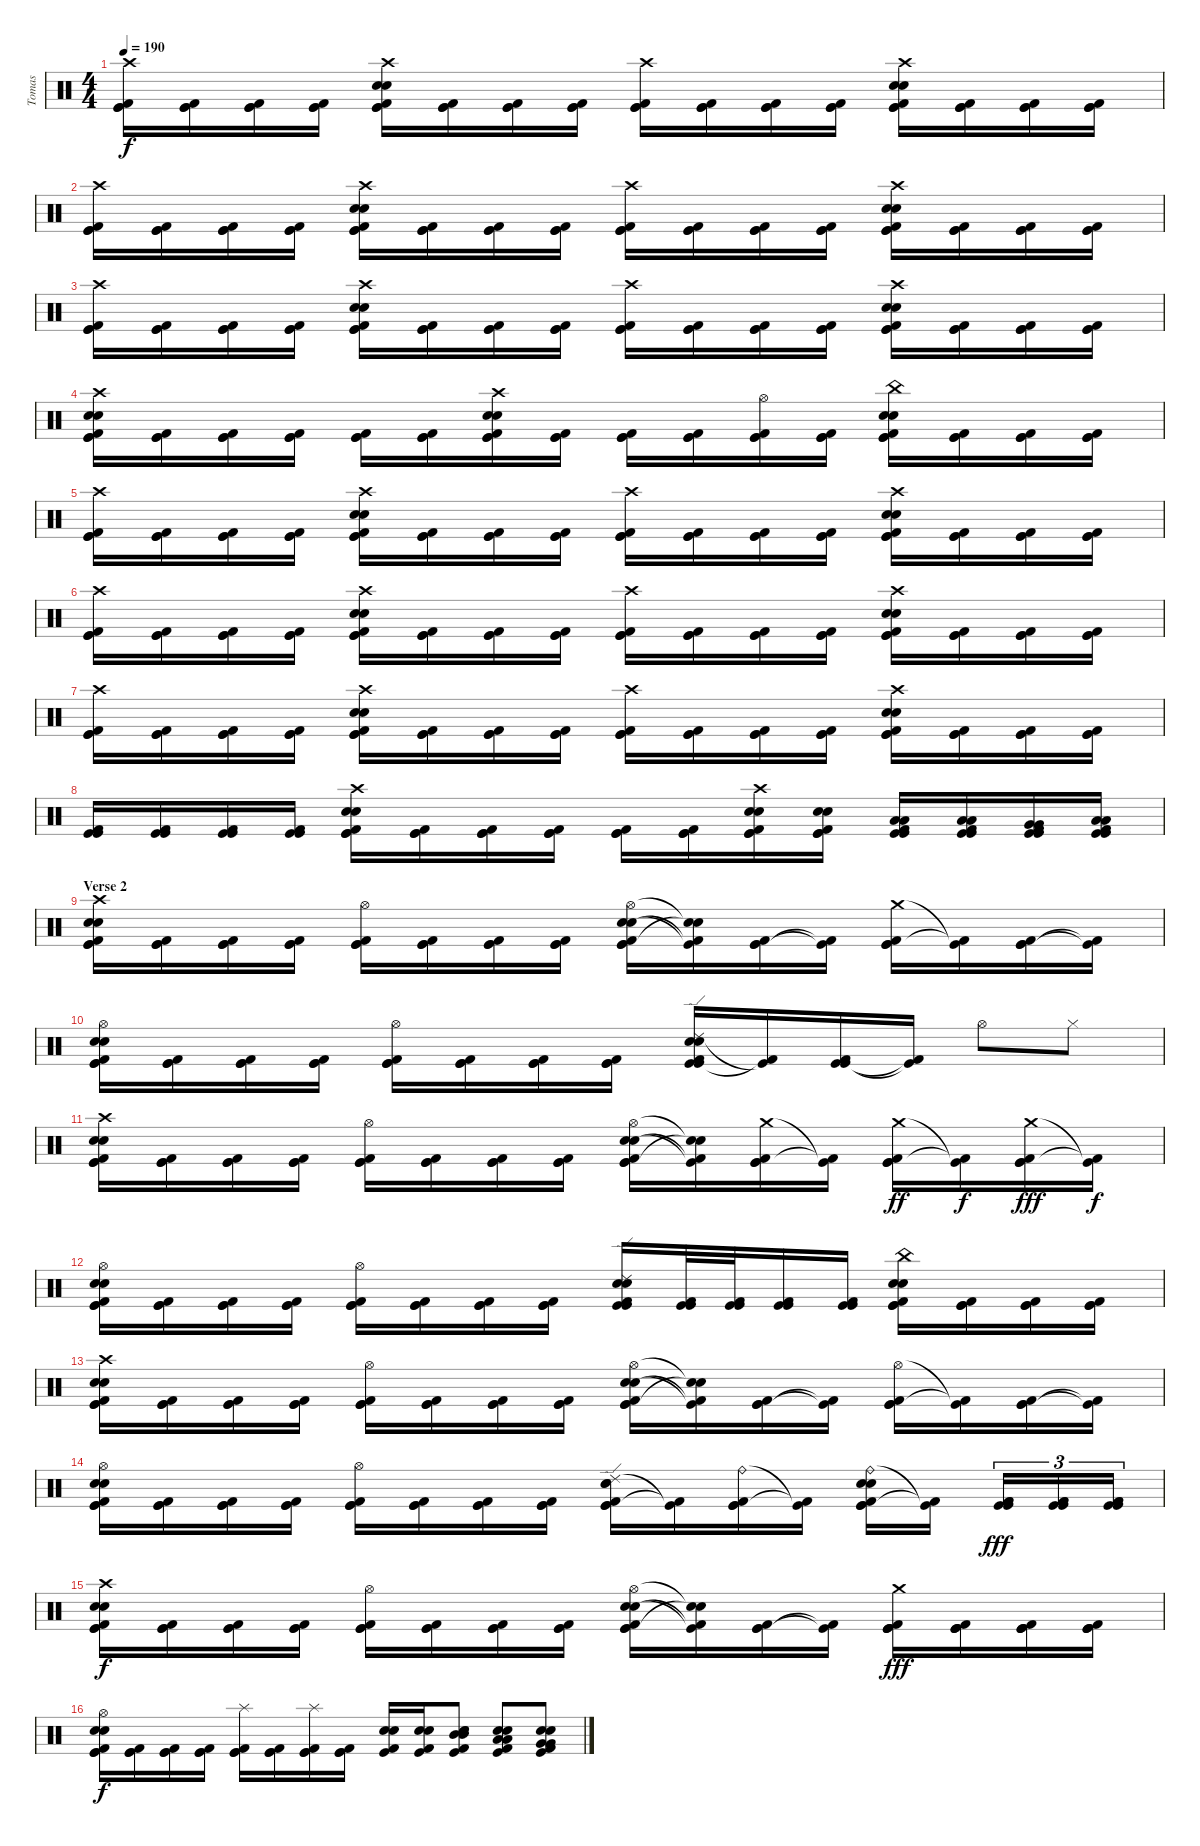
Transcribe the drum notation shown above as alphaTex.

\track ("Tomas" "Tomas") {instrument percussion}
\staff {score}
\articulation defaults
\ts (4 4)
\tempo 190
\clef neutral
\ks c
("Crash high (hit)" "Kick (hit)" "Kick (hit)" "Kick (hit) 2").16{dy f} ("Kick (hit)" "Kick (hit)" "Kick (hit) 2").16 ("Kick (hit)" "Kick (hit)" "Kick (hit) 2").16 ("Kick (hit)" "Kick (hit)" "Kick (hit) 2").16 ("Crash high (hit)" "Kick (hit)" "Electric Snare (hit)" "Electric Snare (hit)" "Kick (hit)" "Kick (hit) 2").16 ("Kick (hit)" "Kick (hit)" "Kick (hit) 2").16 ("Kick (hit)" "Kick (hit)" "Kick (hit) 2").16 ("Kick (hit)" "Kick (hit)" "Kick (hit) 2").16 ("Crash high (hit)" "Kick (hit)" "Kick (hit)" "Kick (hit) 2").16 ("Kick (hit)" "Kick (hit)" "Kick (hit) 2").16 ("Kick (hit)" "Kick (hit)" "Kick (hit) 2").16 ("Kick (hit)" "Kick (hit)" "Kick (hit) 2").16 ("Crash high (hit)" "Kick (hit)" "Electric Snare (hit)" "Electric Snare (hit)" "Kick (hit)" "Kick (hit) 2").16 ("Kick (hit)" "Kick (hit)" "Kick (hit) 2").16 ("Kick (hit)" "Kick (hit)" "Kick (hit) 2").16 ("Kick (hit)" "Kick (hit)" "Kick (hit) 2").16 |
("Crash high (hit)" "Kick (hit)" "Kick (hit)" "Kick (hit) 2").16 ("Kick (hit)" "Kick (hit)" "Kick (hit) 2").16 ("Kick (hit)" "Kick (hit)" "Kick (hit) 2").16 ("Kick (hit)" "Kick (hit)" "Kick (hit) 2").16 ("Crash high (hit)" "Kick (hit)" "Electric Snare (hit)" "Electric Snare (hit)" "Kick (hit)" "Kick (hit) 2").16 ("Kick (hit)" "Kick (hit)" "Kick (hit) 2").16 ("Kick (hit)" "Kick (hit)" "Kick (hit) 2").16 ("Kick (hit)" "Kick (hit)" "Kick (hit) 2").16 ("Crash high (hit)" "Kick (hit)" "Kick (hit)" "Kick (hit) 2").16 ("Kick (hit)" "Kick (hit)" "Kick (hit) 2").16 ("Kick (hit)" "Kick (hit)" "Kick (hit) 2").16 ("Kick (hit)" "Kick (hit)" "Kick (hit) 2").16 ("Crash high (hit)" "Kick (hit)" "Electric Snare (hit)" "Electric Snare (hit)" "Kick (hit)" "Kick (hit) 2").16 ("Kick (hit)" "Kick (hit)" "Kick (hit) 2").16 ("Kick (hit)" "Kick (hit)" "Kick (hit) 2").16 ("Kick (hit)" "Kick (hit)" "Kick (hit) 2").16 |
("Crash high (hit)" "Kick (hit)" "Kick (hit)" "Kick (hit) 2").16 ("Kick (hit)" "Kick (hit)" "Kick (hit) 2").16 ("Kick (hit)" "Kick (hit)" "Kick (hit) 2").16 ("Kick (hit)" "Kick (hit)" "Kick (hit) 2").16 ("Crash high (hit)" "Kick (hit)" "Electric Snare (hit)" "Electric Snare (hit)" "Kick (hit)" "Kick (hit) 2").16 ("Kick (hit)" "Kick (hit)" "Kick (hit) 2").16 ("Kick (hit)" "Kick (hit)" "Kick (hit) 2").16 ("Kick (hit)" "Kick (hit)" "Kick (hit) 2").16 ("Crash high (hit)" "Kick (hit)" "Kick (hit)" "Kick (hit) 2").16 ("Kick (hit)" "Kick (hit)" "Kick (hit) 2").16 ("Kick (hit)" "Kick (hit)" "Kick (hit) 2").16 ("Kick (hit)" "Kick (hit)" "Kick (hit) 2").16 ("Crash high (hit)" "Kick (hit)" "Electric Snare (hit)" "Electric Snare (hit)" "Kick (hit)" "Kick (hit) 2").16 ("Kick (hit)" "Kick (hit)" "Kick (hit) 2").16 ("Kick (hit)" "Kick (hit)" "Kick (hit) 2").16 ("Kick (hit)" "Kick (hit)" "Kick (hit) 2").16 |
("Crash high (hit)" "Kick (hit)" "Electric Snare (hit)" "Electric Snare (hit)" "Kick (hit)" "Kick (hit) 2").16 ("Kick (hit)" "Kick (hit)" "Kick (hit) 2").16 ("Kick (hit)" "Kick (hit)" "Kick (hit) 2").16 ("Kick (hit)" "Kick (hit)" "Kick (hit) 2").16 ("Kick (hit)" "Kick (hit)" "Kick (hit) 2").16 ("Kick (hit)" "Kick (hit)" "Kick (hit) 2").16 ("Crash high (hit)" "Kick (hit)" "Electric Snare (hit)" "Electric Snare (hit)" "Kick (hit)" "Kick (hit) 2").16 ("Kick (hit)" "Kick (hit)" "Kick (hit) 2").16 ("Kick (hit)" "Kick (hit)" "Kick (hit) 2").16 ("Kick (hit)" "Kick (hit)" "Kick (hit) 2").16 ("Hi-Hat (open)" "Kick (hit)" "Kick (hit)" "Kick (hit) 2").16 ("Kick (hit)" "Kick (hit)" "Kick (hit) 2").16 ("China (hit)" "Kick (hit)" "Electric Snare (hit)" "Electric Snare (hit)" "Kick (hit)" "Kick (hit) 2").16 ("Kick (hit)" "Kick (hit)" "Kick (hit) 2").16 ("Kick (hit)" "Kick (hit)" "Kick (hit) 2").16 ("Kick (hit)" "Kick (hit)" "Kick (hit) 2").16 |
("Crash high (hit)" "Kick (hit)" "Kick (hit)" "Kick (hit) 2").16 ("Kick (hit)" "Kick (hit)" "Kick (hit) 2").16 ("Kick (hit)" "Kick (hit)" "Kick (hit) 2").16 ("Kick (hit)" "Kick (hit)" "Kick (hit) 2").16 ("Crash high (hit)" "Kick (hit)" "Electric Snare (hit)" "Electric Snare (hit)" "Kick (hit)" "Kick (hit) 2").16 ("Kick (hit)" "Kick (hit)" "Kick (hit) 2").16 ("Kick (hit)" "Kick (hit)" "Kick (hit) 2").16 ("Kick (hit)" "Kick (hit)" "Kick (hit) 2").16 ("Crash high (hit)" "Kick (hit)" "Kick (hit)" "Kick (hit) 2").16 ("Kick (hit)" "Kick (hit)" "Kick (hit) 2").16 ("Kick (hit)" "Kick (hit)" "Kick (hit) 2").16 ("Kick (hit)" "Kick (hit)" "Kick (hit) 2").16 ("Crash high (hit)" "Kick (hit)" "Electric Snare (hit)" "Electric Snare (hit)" "Kick (hit)" "Kick (hit) 2").16 ("Kick (hit)" "Kick (hit)" "Kick (hit) 2").16 ("Kick (hit)" "Kick (hit)" "Kick (hit) 2").16 ("Kick (hit)" "Kick (hit)" "Kick (hit) 2").16 |
("Crash high (hit)" "Kick (hit)" "Kick (hit)" "Kick (hit) 2").16 ("Kick (hit)" "Kick (hit)" "Kick (hit) 2").16 ("Kick (hit)" "Kick (hit)" "Kick (hit) 2").16 ("Kick (hit)" "Kick (hit)" "Kick (hit) 2").16 ("Crash high (hit)" "Kick (hit)" "Electric Snare (hit)" "Electric Snare (hit)" "Kick (hit)" "Kick (hit) 2").16 ("Kick (hit)" "Kick (hit)" "Kick (hit) 2").16 ("Kick (hit)" "Kick (hit)" "Kick (hit) 2").16 ("Kick (hit)" "Kick (hit)" "Kick (hit) 2").16 ("Crash high (hit)" "Kick (hit)" "Kick (hit)" "Kick (hit) 2").16 ("Kick (hit)" "Kick (hit)" "Kick (hit) 2").16 ("Kick (hit)" "Kick (hit)" "Kick (hit) 2").16 ("Kick (hit)" "Kick (hit)" "Kick (hit) 2").16 ("Crash high (hit)" "Kick (hit)" "Electric Snare (hit)" "Electric Snare (hit)" "Kick (hit)" "Kick (hit) 2").16 ("Kick (hit)" "Kick (hit)" "Kick (hit) 2").16 ("Kick (hit)" "Kick (hit)" "Kick (hit) 2").16 ("Kick (hit)" "Kick (hit)" "Kick (hit) 2").16 |
("Crash high (hit)" "Kick (hit)" "Kick (hit)" "Kick (hit) 2").16 ("Kick (hit)" "Kick (hit)" "Kick (hit) 2").16 ("Kick (hit)" "Kick (hit)" "Kick (hit) 2").16 ("Kick (hit)" "Kick (hit)" "Kick (hit) 2").16 ("Crash high (hit)" "Kick (hit)" "Electric Snare (hit)" "Electric Snare (hit)" "Kick (hit)" "Kick (hit) 2").16 ("Kick (hit)" "Kick (hit)" "Kick (hit) 2").16 ("Kick (hit)" "Kick (hit)" "Kick (hit) 2").16 ("Kick (hit)" "Kick (hit)" "Kick (hit) 2").16 ("Crash high (hit)" "Kick (hit)" "Kick (hit)" "Kick (hit) 2").16 ("Kick (hit)" "Kick (hit)" "Kick (hit) 2").16 ("Kick (hit)" "Kick (hit)" "Kick (hit) 2").16 ("Kick (hit)" "Kick (hit)" "Kick (hit) 2").16 ("Crash high (hit)" "Kick (hit)" "Electric Snare (hit)" "Electric Snare (hit)" "Kick (hit)" "Kick (hit) 2").16 ("Kick (hit)" "Kick (hit)" "Kick (hit) 2").16 ("Kick (hit)" "Kick (hit)" "Kick (hit) 2").16 ("Kick (hit)" "Kick (hit)" "Kick (hit) 2").16 |
("Kick (hit)" "Kick (hit)" "Kick (hit) 2").16 ("Kick (hit)" "Kick (hit)" "Kick (hit) 2").16 ("Kick (hit)" "Kick (hit)" "Kick (hit) 2").16 ("Kick (hit)" "Kick (hit)" "Kick (hit) 2").16 ("Crash high (hit)" "Kick (hit)" "Electric Snare (hit)" "Electric Snare (hit)" "Kick (hit)" "Kick (hit) 2").16 ("Kick (hit)" "Kick (hit)" "Kick (hit) 2").16 ("Kick (hit)" "Kick (hit)" "Kick (hit) 2").16 ("Kick (hit)" "Kick (hit)" "Kick (hit) 2").16 ("Kick (hit)" "Kick (hit)" "Kick (hit) 2").16 ("Kick (hit)" "Kick (hit)" "Kick (hit) 2").16 ("Crash high (hit)" "Kick (hit)" "Electric Snare (hit)" "Electric Snare (hit)" "Kick (hit)" "Kick (hit) 2").16 ("Kick (hit)" "Electric Snare (hit)" "Electric Snare (hit)" "Kick (hit)" "Kick (hit) 2").16 ("Kick (hit)" "Low Tom (hit)" "Low Tom (hit)" "Kick (hit)" "Kick (hit) 2").16 ("Kick (hit)" "Low Tom (hit)" "Low Tom (hit)" "Kick (hit)" "Kick (hit) 2").16 ("Kick (hit)" "Very Low Tom (hit)" "Very Low Tom (hit)" "Kick (hit)" "Kick (hit) 2").16 ("Kick (hit)" "Low Floor Tom (hit)" "Low Floor Tom (hit)" "Kick (hit)" "Kick (hit) 2").16 |
\section ("" "Verse 2")
("Crash high (hit)" "Kick (hit)" "Electric Snare (hit)" "Electric Snare (hit)" "Kick (hit)" "Kick (hit) 2").16 ("Kick (hit)" "Kick (hit)" "Kick (hit) 2").16 ("Kick (hit)" "Kick (hit)" "Kick (hit) 2").16 ("Kick (hit)" "Kick (hit)" "Kick (hit) 2").16 ("Hi-Hat (open)" "Kick (hit)" "Kick (hit)" "Kick (hit) 2").16 ("Kick (hit)" "Kick (hit)" "Kick (hit) 2").16 ("Kick (hit)" "Kick (hit)" "Kick (hit) 2").16 ("Kick (hit)" "Kick (hit)" "Kick (hit) 2").16 ("Hi-Hat (open)" "Kick (hit)" "Electric Snare (hit)" "Electric Snare (hit)" "Kick (hit)" "Kick (hit) 2").16 ("Snare (hit)"{t} "Snare (hit)"{t} "Kick (hit)"{t} "Kick (hit) 2"{t}).16 ("Kick (hit)" "Kick (hit)" "Kick (hit) 2").16 ("Kick (hit)"{t} "Kick (hit) 2"{t}).16 ("Crash medium (hit)" "Kick (hit)" "Kick (hit)" "Kick (hit) 2").16 ("Kick (hit)"{t} "Kick (hit) 2"{t}).16 ("Kick (hit)" "Kick (hit)" "Kick (hit) 2").16 ("Kick (hit)"{t} "Kick (hit) 2"{t}).16 |
("Hi-Hat (open)" "Kick (hit)" "Electric Snare (hit)" "Electric Snare (hit)" "Kick (hit)" "Kick (hit) 2").16 ("Kick (hit)" "Kick (hit)" "Kick (hit) 2").16 ("Kick (hit)" "Kick (hit)" "Kick (hit) 2").16 ("Kick (hit)" "Kick (hit)" "Kick (hit) 2").16 ("Hi-Hat (open)" "Kick (hit)" "Kick (hit)" "Kick (hit) 2").16 ("Kick (hit)" "Kick (hit)" "Kick (hit) 2").16 ("Kick (hit)" "Kick (hit)" "Kick (hit) 2").16 ("Kick (hit)" "Kick (hit)" "Kick (hit) 2").16 ("Ride (edge) 2" "Kick (hit)" "Electric Snare (hit)" "Electric Snare (hit)" "Kick (hit)" "Kick (hit) 2").16 ("Kick (hit)"{t} "Kick (hit) 2"{t}).16 ("Kick (hit)" "Kick (hit)" "Kick (hit) 2").16 ("Kick (hit)"{t} "Kick (hit) 2"{t}).16 "Hi-Hat (open)".8 "Hi-Hat (closed)".8 |
("Crash high (hit)" "Kick (hit)" "Electric Snare (hit)" "Electric Snare (hit)" "Kick (hit)" "Kick (hit) 2").16 ("Kick (hit)" "Kick (hit)" "Kick (hit) 2").16 ("Kick (hit)" "Kick (hit)" "Kick (hit) 2").16 ("Kick (hit)" "Kick (hit)" "Kick (hit) 2").16 ("Hi-Hat (open)" "Kick (hit)" "Kick (hit)" "Kick (hit) 2").16 ("Kick (hit)" "Kick (hit)" "Kick (hit) 2").16 ("Kick (hit)" "Kick (hit)" "Kick (hit) 2").16 ("Kick (hit)" "Kick (hit)" "Kick (hit) 2").16 ("Hi-Hat (open)" "Kick (hit)" "Electric Snare (hit)" "Electric Snare (hit)" "Kick (hit)" "Kick (hit) 2").16 ("Snare (hit)"{t} "Snare (hit)"{t} "Kick (hit)"{t} "Kick (hit) 2"{t}).16 ("Crash medium (hit)" "Kick (hit)" "Kick (hit)" "Kick (hit) 2").16 ("Kick (hit)"{t} "Kick (hit) 2"{t}).16 ("Crash medium (hit)" "Kick (hit)" "Kick (hit)" "Kick (hit) 2").16{dy ff} ("Kick (hit)"{t} "Kick (hit) 2"{t}).16{dy f} ("Crash medium (hit)" "Kick (hit)" "Kick (hit)" "Kick (hit) 2").16{dy fff} ("Kick (hit)"{t} "Kick (hit) 2"{t}).16{dy f} |
("Hi-Hat (open)" "Kick (hit)" "Electric Snare (hit)" "Electric Snare (hit)" "Kick (hit)" "Kick (hit) 2").16 ("Kick (hit)" "Kick (hit)" "Kick (hit) 2").16 ("Kick (hit)" "Kick (hit)" "Kick (hit) 2").16 ("Kick (hit)" "Kick (hit)" "Kick (hit) 2").16 ("Hi-Hat (open)" "Kick (hit)" "Kick (hit)" "Kick (hit) 2").16 ("Kick (hit)" "Kick (hit)" "Kick (hit) 2").16 ("Kick (hit)" "Kick (hit)" "Kick (hit) 2").16 ("Kick (hit)" "Kick (hit)" "Kick (hit) 2").16 ("Ride (edge) 2" "Kick (hit)" "Electric Snare (hit)" "Electric Snare (hit)" "Kick (hit)" "Kick (hit) 2").16 ("Kick (hit)" "Kick (hit)" "Kick (hit) 2").32 ("Kick (hit)" "Kick (hit)" "Kick (hit) 2").32 ("Kick (hit)" "Kick (hit)" "Kick (hit) 2").16 ("Kick (hit)" "Kick (hit)" "Kick (hit) 2").16 ("China (hit)" "Kick (hit)" "Electric Snare (hit)" "Electric Snare (hit)" "Kick (hit)" "Kick (hit) 2").16 ("Kick (hit)" "Kick (hit)" "Kick (hit) 2").16 ("Kick (hit)" "Kick (hit)" "Kick (hit) 2").16 ("Kick (hit)" "Kick (hit)" "Kick (hit) 2").16 |
("Crash high (hit)" "Kick (hit)" "Electric Snare (hit)" "Electric Snare (hit)" "Kick (hit)" "Kick (hit) 2").16 ("Kick (hit)" "Kick (hit)" "Kick (hit) 2").16 ("Kick (hit)" "Kick (hit)" "Kick (hit) 2").16 ("Kick (hit)" "Kick (hit)" "Kick (hit) 2").16 ("Hi-Hat (open)" "Kick (hit)" "Kick (hit)" "Kick (hit) 2").16 ("Kick (hit)" "Kick (hit)" "Kick (hit) 2").16 ("Kick (hit)" "Kick (hit)" "Kick (hit) 2").16 ("Kick (hit)" "Kick (hit)" "Kick (hit) 2").16 ("Hi-Hat (open)" "Kick (hit)" "Electric Snare (hit)" "Electric Snare (hit)" "Kick (hit)" "Kick (hit) 2").16 ("Snare (hit)"{t} "Snare (hit)"{t} "Kick (hit)"{t} "Kick (hit) 2"{t}).16 ("Kick (hit)" "Kick (hit)" "Kick (hit) 2").16 ("Kick (hit)"{t} "Kick (hit) 2"{t}).16 ("Hi-Hat (open)" "Kick (hit)" "Kick (hit)" "Kick (hit) 2").16 ("Kick (hit)"{t} "Kick (hit) 2"{t}).16 ("Kick (hit)" "Kick (hit)" "Kick (hit) 2").16 ("Kick (hit)"{t} "Kick (hit) 2"{t}).16 |
("Hi-Hat (open)" "Kick (hit)" "Electric Snare (hit)" "Electric Snare (hit)" "Kick (hit)" "Kick (hit) 2").16 ("Kick (hit)" "Kick (hit)" "Kick (hit) 2").16 ("Kick (hit)" "Kick (hit)" "Kick (hit) 2").16 ("Kick (hit)" "Kick (hit)" "Kick (hit) 2").16 ("Hi-Hat (open)" "Kick (hit)" "Kick (hit)" "Kick (hit) 2").16 ("Kick (hit)" "Kick (hit)" "Kick (hit) 2").16 ("Kick (hit)" "Kick (hit)" "Kick (hit) 2").16 ("Kick (hit)" "Kick (hit)" "Kick (hit) 2").16 ("Ride (edge) 2" "Kick (hit)" "Electric Snare (hit)" "Electric Snare (hit)" "Kick (hit)" "Kick (hit) 2").16 ("Kick (hit)"{t} "Kick (hit) 2"{t}).16 ("Ride (bell)" "Kick (hit)" "Kick (hit)" "Kick (hit) 2").16 ("Kick (hit)"{t} "Kick (hit) 2"{t}).16 ("Ride (bell)" "Kick (hit)" "Electric Snare (hit)" "Electric Snare (hit)" "Kick (hit)" "Kick (hit) 2").16 ("Kick (hit)"{t} "Kick (hit) 2"{t}).16 ("Kick (hit)" "Kick (hit) 2" "Kick (hit)" "Kick (hit) 2").16{tu (3 2) dy fff} ("Kick (hit)" "Kick (hit) 2" "Kick (hit)" "Kick (hit) 2").16{tu (3 2)} ("Kick (hit)" "Kick (hit) 2" "Kick (hit)" "Kick (hit) 2").16{tu (3 2)} |
("Crash high (hit)" "Kick (hit)" "Electric Snare (hit)" "Electric Snare (hit)" "Kick (hit)" "Kick (hit) 2").16{dy f} ("Kick (hit)" "Kick (hit)" "Kick (hit) 2").16 ("Kick (hit)" "Kick (hit)" "Kick (hit) 2").16 ("Kick (hit)" "Kick (hit)" "Kick (hit) 2").16 ("Hi-Hat (open)" "Kick (hit)" "Kick (hit)" "Kick (hit) 2").16 ("Kick (hit)" "Kick (hit)" "Kick (hit) 2").16 ("Kick (hit)" "Kick (hit)" "Kick (hit) 2").16 ("Kick (hit)" "Kick (hit)" "Kick (hit) 2").16 ("Hi-Hat (open)" "Kick (hit)" "Electric Snare (hit)" "Electric Snare (hit)" "Kick (hit)" "Kick (hit) 2").16 ("Snare (hit)"{t} "Snare (hit)"{t} "Kick (hit)"{t} "Kick (hit) 2"{t}).16 ("Kick (hit)" "Kick (hit)" "Kick (hit) 2").16 ("Kick (hit)"{t} "Kick (hit) 2"{t}).16 ("Crash medium (hit)" "Kick (hit)" "Kick (hit)" "Kick (hit)" "Kick (hit) 2").16{dy fff} ("Kick (hit)" "Kick (hit)" "Kick (hit)" "Kick (hit) 2").16 ("Kick (hit)" "Kick (hit)" "Kick (hit)" "Kick (hit) 2").16 ("Kick (hit)" "Kick (hit)" "Kick (hit)" "Kick (hit) 2").16 |
("Hi-Hat (open)" "Kick (hit)" "Electric Snare (hit)" "Electric Snare (hit)" "Kick (hit)" "Kick (hit) 2").16{dy f} ("Kick (hit)" "Kick (hit)" "Kick (hit) 2").16 ("Kick (hit)" "Kick (hit)" "Kick (hit) 2").16 ("Kick (hit)" "Kick (hit)" "Kick (hit) 2").16 ("Splash (hit)" "Kick (hit)" "Kick (hit)" "Kick (hit) 2").16 ("Kick (hit)" "Kick (hit)" "Kick (hit) 2").16 ("Splash (hit)" "Kick (hit)" "Kick (hit)" "Kick (hit) 2").16 ("Kick (hit)" "Kick (hit)" "Kick (hit) 2").16 ("Electric Snare (hit)" "Electric Snare (hit)" "Kick (hit)" "Kick (hit) 2").16 ("Electric Snare (hit)" "Electric Snare (hit)" "Kick (hit)" "Kick (hit) 2").16 ("Mid Tom (hit)" "Mid Tom (hit)" "Electric Snare (hit)" "Electric Snare (hit)" "Kick (hit)" "Kick (hit) 2").8 ("Low Tom (hit)" "Low Tom (hit)" "Electric Snare (hit)" "Electric Snare (hit)" "Kick (hit)" "Kick (hit) 2").8 ("Very Low Tom (hit)" "Very Low Tom (hit)" "Electric Snare (hit)" "Electric Snare (hit)" "Kick (hit)" "Kick (hit) 2").8
